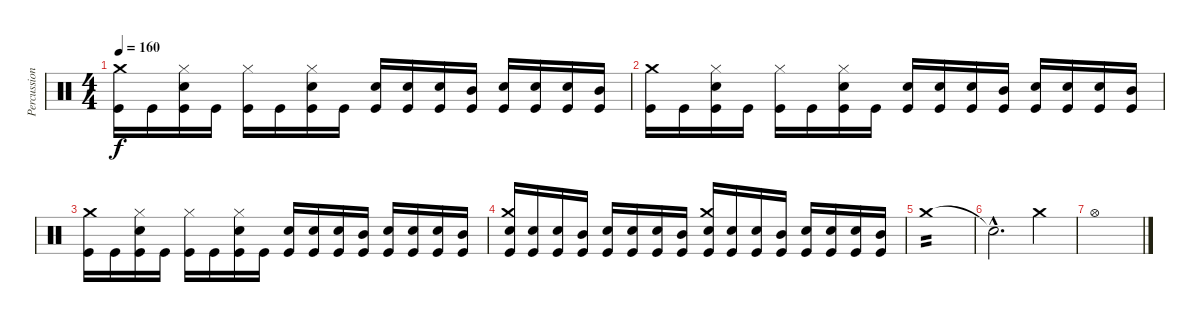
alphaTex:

\track ("Percussions" "Percussion") {instrument percussion}
\staff {score}
\articulation defaults
\ts (4 4)
\tempo 160
\clef neutral
\ks c
("Kick (hit)" "Crash medium (hit)").16{dy f} "Kick (hit)".16 ("Kick (hit)" "Snare (hit) 2" "Hi-Hat (closed)").16 "Kick (hit)".16 ("Kick (hit)" "Hi-Hat (closed)").16 "Kick (hit)".16 ("Kick (hit)" "Snare (hit) 2" "Hi-Hat (closed)").16 "Kick (hit)".16 ("Kick (hit)" "Electric Snare (hit)").16 ("Kick (hit)" "Electric Snare (hit)").16 ("Kick (hit)" "Snare (hit) 2").16 ("Kick (hit)" "Mid Tom (hit)").16 ("Kick (hit)" "Electric Snare (hit)").16 ("Kick (hit)" "Electric Snare (hit)").16 ("Kick (hit)" "Snare (hit) 2").16 ("Kick (hit)" "Mid Tom (hit)").16 |
("Kick (hit)" "Crash medium (hit)").16 "Kick (hit)".16 ("Kick (hit)" "Snare (hit) 2" "Hi-Hat (closed)").16 "Kick (hit)".16 ("Kick (hit)" "Hi-Hat (closed)").16 "Kick (hit)".16 ("Kick (hit)" "Snare (hit) 2" "Hi-Hat (closed)").16 "Kick (hit)".16 ("Kick (hit)" "Electric Snare (hit)").16 ("Kick (hit)" "Electric Snare (hit)").16 ("Kick (hit)" "Snare (hit) 2").16 ("Kick (hit)" "Mid Tom (hit)").16 ("Kick (hit)" "Electric Snare (hit)").16 ("Kick (hit)" "Electric Snare (hit)").16 ("Kick (hit)" "Snare (hit) 2").16 ("Kick (hit)" "Mid Tom (hit)").16 |
("Kick (hit)" "Crash medium (hit)").16 "Kick (hit)".16 ("Kick (hit)" "Snare (hit) 2" "Hi-Hat (closed)").16 "Kick (hit)".16 ("Kick (hit)" "Hi-Hat (closed)").16 "Kick (hit)".16 ("Kick (hit)" "Snare (hit) 2" "Hi-Hat (closed)").16 "Kick (hit)".16 ("Kick (hit)" "Electric Snare (hit)").16 ("Kick (hit)" "Electric Snare (hit)").16 ("Kick (hit)" "Snare (hit) 2").16 ("Kick (hit)" "Mid Tom (hit)").16 ("Kick (hit)" "Electric Snare (hit)").16 ("Kick (hit)" "Electric Snare (hit)").16 ("Kick (hit)" "Snare (hit) 2").16 ("Kick (hit)" "Mid Tom (hit)").16 |
("Kick (hit)" "Crash medium (hit)" "Electric Snare (hit)").16 ("Kick (hit)" "Electric Snare (hit)").16 ("Kick (hit)" "Snare (hit) 2").16 ("Kick (hit)" "Mid Tom (hit)").16 ("Kick (hit)" "Electric Snare (hit)").16 ("Kick (hit)" "Electric Snare (hit)").16 ("Kick (hit)" "Snare (hit) 2").16 ("Kick (hit)" "Mid Tom (hit)").16 ("Kick (hit)" "Crash medium (hit)" "Electric Snare (hit)").16 ("Kick (hit)" "Electric Snare (hit)").16 ("Kick (hit)" "Snare (hit) 2").16 ("Kick (hit)" "Mid Tom (hit)").16 ("Kick (hit)" "Electric Snare (hit)").16 ("Kick (hit)" "Electric Snare (hit)").16 ("Kick (hit)" "Snare (hit) 2").16 ("Kick (hit)" "Mid Tom (hit)").16 |
"Crash medium (hit)".1{tp 2} |
"Snare (hit)"{hac t}.2{d} "Crash medium (hit)".4 |
"Hi-Hat (open)".1
